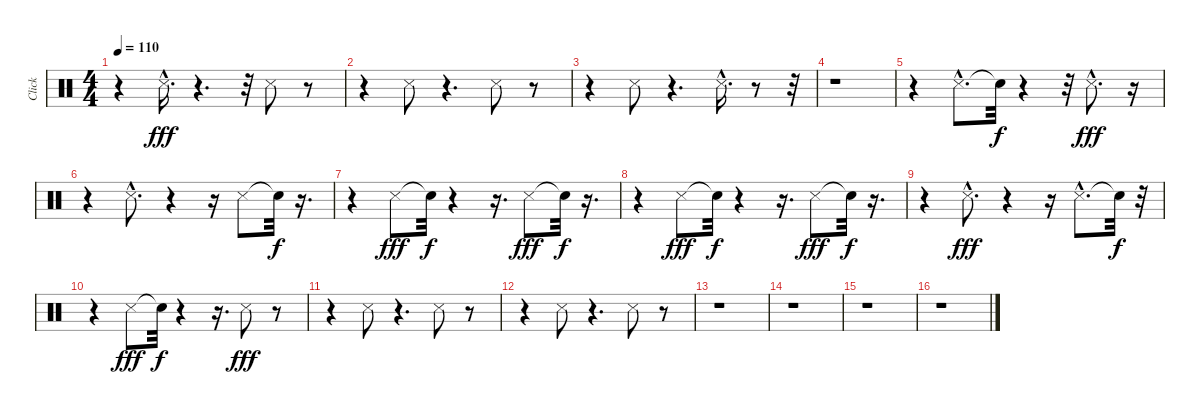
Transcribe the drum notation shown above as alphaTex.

\track ("Click" "Click") {instrument percussion}
\staff {score}
\articulation defaults
\ts (4 4)
\tempo 110
\clef neutral
\ks c
r.4{dy fff} "Snare (side stick) 3"{hac}.16{d} r.4{d} r.32 "Snare (side stick) 3".8 r.8 |
r.4 "Snare (side stick) 3".8 r.4{d} "Snare (side stick) 3".8 r.8 |
r.4 "Snare (side stick) 3".8 r.4{d} "Snare (side stick) 3"{hac}.16{d} r.8 r.32 |
r.1 |
r.4 "Snare (side stick) 3"{hac}.8{d} "Snare (hit)"{t}.32{dy f} r.4 r.32 "Snare (side stick) 3"{hac}.8{d dy fff} r.16 |
r.4 "Snare (side stick) 3"{hac}.8{d} r.4 r.16 "Snare (side stick) 3".8 "Snare (hit)"{t}.32{dy f} r.16{d} |
r.4 "Snare (side stick) 3".8{dy fff} "Snare (hit)"{t}.32{dy f} r.4 r.16{d} "Snare (side stick) 3".8{dy fff} "Snare (hit)"{t}.32{dy f} r.16{d} |
r.4 "Snare (side stick) 3".8{dy fff} "Snare (hit)"{t}.32{dy f} r.4 r.16{d} "Snare (side stick) 3".8{dy fff} "Snare (hit)"{t}.32{dy f} r.16{d} |
r.4 "Snare (side stick) 3"{hac}.8{d dy fff} r.4 r.16 "Snare (side stick) 3"{hac}.8{d} "Snare (hit)"{t}.32{dy f} r.32 |
r.4 "Snare (side stick) 3".8{dy fff} "Snare (hit)"{t}.32{dy f} r.4 r.16{d} "Snare (side stick) 3".8{dy fff} r.8 |
r.4 "Snare (side stick) 3".8 r.4{d} "Snare (side stick) 3".8 r.8 |
r.4 "Snare (side stick) 3".8 r.4{d} "Snare (side stick) 3".8 r.8 |
r.1 |
r.1 |
r.1 |
r.1
